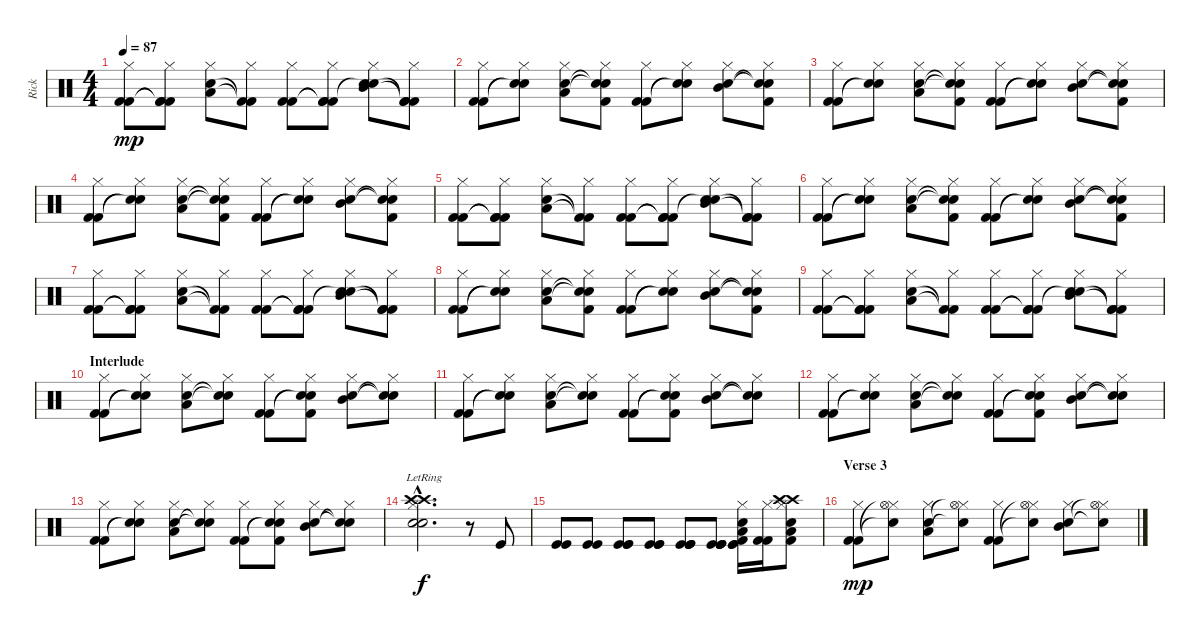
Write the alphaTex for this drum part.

\track ("Rick" "Rick") {instrument percussion}
\staff {score}
\articulation defaults
\ts (4 4)
\tempo 87
\clef neutral
\ks c
("Hi-Hat (closed)" "Kick (hit) 2" "Kick (hit) 2").8{dy mp} ("Hi-Hat (closed)" "Kick (hit) 2"{t} "Kick (hit) 2"{t} "Kick (hit) 2").8 ("Hi-Hat (closed)" "Electric Snare (hit)" "Low Tom (hit)").8 ("Hi-Hat (closed)" "Kick (hit) 2"{t} "Kick (hit) 2"{t}).8 ("Hi-Hat (closed)" "Kick (hit) 2" "Kick (hit) 2").8 ("Hi-Hat (closed)" "Kick (hit) 2"{t} "Kick (hit) 2"{t} "Kick (hit) 2").8 ("Hi-Hat (closed)" "Electric Snare (hit)" "Mid Tom (hit)" "Electric Snare (hit)"{t}).8 ("Hi-Hat (closed)" "Kick (hit) 2"{t} "Kick (hit) 2"{t} "Kick (hit) 2").8 |
("Hi-Hat (closed)" "Kick (hit) 2" "Kick (hit) 2").8 ("Hi-Hat (closed)" "Snare (hit)"{t} "Snare (hit)"{t}).8 ("Hi-Hat (closed)" "Electric Snare (hit)" "Low Tom (hit)").8 ("Hi-Hat (closed)" "Snare (hit)"{t} "Snare (hit)"{t} "Kick (hit) 2").8 ("Hi-Hat (closed)" "Kick (hit) 2" "Kick (hit) 2").8 ("Hi-Hat (closed)" "Snare (hit)"{t} "Snare (hit)"{t}).8 ("Hi-Hat (closed)" "Electric Snare (hit)" "Mid Tom (hit)").8 ("Hi-Hat (closed)" "Snare (hit)"{t} "Snare (hit)"{t} "Kick (hit) 2").8 |
("Hi-Hat (closed)" "Kick (hit) 2" "Kick (hit) 2").8 ("Hi-Hat (closed)" "Snare (hit)"{t} "Snare (hit)"{t}).8 ("Hi-Hat (closed)" "Electric Snare (hit)" "Low Tom (hit)").8 ("Hi-Hat (closed)" "Snare (hit)"{t} "Snare (hit)"{t} "Kick (hit) 2").8 ("Hi-Hat (closed)" "Kick (hit) 2" "Kick (hit) 2").8 ("Hi-Hat (closed)" "Snare (hit)"{t} "Snare (hit)"{t}).8 ("Hi-Hat (closed)" "Electric Snare (hit)" "Mid Tom (hit)").8 ("Hi-Hat (closed)" "Snare (hit)"{t} "Snare (hit)"{t} "Kick (hit) 2").8 |
("Hi-Hat (closed)" "Kick (hit) 2" "Kick (hit) 2").8 ("Hi-Hat (closed)" "Snare (hit)"{t} "Snare (hit)"{t}).8 ("Hi-Hat (closed)" "Electric Snare (hit)" "Low Tom (hit)").8 ("Hi-Hat (closed)" "Snare (hit)"{t} "Snare (hit)"{t} "Kick (hit) 2").8 ("Hi-Hat (closed)" "Kick (hit) 2" "Kick (hit) 2").8 ("Hi-Hat (closed)" "Snare (hit)"{t} "Snare (hit)"{t}).8 ("Hi-Hat (closed)" "Electric Snare (hit)" "Mid Tom (hit)").8 ("Hi-Hat (closed)" "Snare (hit)"{t} "Snare (hit)"{t} "Kick (hit) 2").8 |
("Hi-Hat (closed)" "Kick (hit) 2" "Kick (hit) 2").8 ("Hi-Hat (closed)" "Kick (hit) 2"{t} "Kick (hit) 2"{t} "Kick (hit) 2").8 ("Hi-Hat (closed)" "Electric Snare (hit)" "Low Tom (hit)").8 ("Hi-Hat (closed)" "Kick (hit) 2"{t} "Kick (hit) 2"{t}).8 ("Hi-Hat (closed)" "Kick (hit) 2" "Kick (hit) 2").8 ("Hi-Hat (closed)" "Kick (hit) 2"{t} "Kick (hit) 2"{t} "Kick (hit) 2").8 ("Hi-Hat (closed)" "Electric Snare (hit)" "Mid Tom (hit)" "Electric Snare (hit)"{t}).8 ("Hi-Hat (closed)" "Kick (hit) 2"{t} "Kick (hit) 2"{t} "Kick (hit) 2").8 |
("Hi-Hat (closed)" "Kick (hit) 2" "Kick (hit) 2").8 ("Hi-Hat (closed)" "Snare (hit)"{t} "Snare (hit)"{t}).8 ("Hi-Hat (closed)" "Electric Snare (hit)" "Low Tom (hit)").8 ("Hi-Hat (closed)" "Snare (hit)"{t} "Snare (hit)"{t} "Kick (hit) 2").8 ("Hi-Hat (closed)" "Kick (hit) 2" "Kick (hit) 2").8 ("Hi-Hat (closed)" "Snare (hit)"{t} "Snare (hit)"{t}).8 ("Hi-Hat (closed)" "Electric Snare (hit)" "Mid Tom (hit)").8 ("Hi-Hat (closed)" "Snare (hit)"{t} "Snare (hit)"{t} "Kick (hit) 2").8 |
("Hi-Hat (closed)" "Kick (hit) 2" "Kick (hit) 2").8 ("Hi-Hat (closed)" "Kick (hit) 2"{t} "Kick (hit) 2"{t} "Kick (hit) 2").8 ("Hi-Hat (closed)" "Electric Snare (hit)" "Low Tom (hit)").8 ("Hi-Hat (closed)" "Kick (hit) 2"{t} "Kick (hit) 2"{t}).8 ("Hi-Hat (closed)" "Kick (hit) 2" "Kick (hit) 2").8 ("Hi-Hat (closed)" "Kick (hit) 2"{t} "Kick (hit) 2"{t} "Kick (hit) 2").8 ("Hi-Hat (closed)" "Electric Snare (hit)" "Mid Tom (hit)" "Electric Snare (hit)"{t}).8 ("Hi-Hat (closed)" "Kick (hit) 2"{t} "Kick (hit) 2"{t} "Kick (hit) 2").8 |
("Hi-Hat (closed)" "Kick (hit) 2" "Kick (hit) 2").8 ("Hi-Hat (closed)" "Snare (hit)"{t} "Snare (hit)"{t}).8 ("Hi-Hat (closed)" "Electric Snare (hit)" "Low Tom (hit)").8 ("Hi-Hat (closed)" "Snare (hit)"{t} "Snare (hit)"{t} "Kick (hit) 2").8 ("Hi-Hat (closed)" "Kick (hit) 2" "Kick (hit) 2").8 ("Hi-Hat (closed)" "Snare (hit)"{t} "Snare (hit)"{t}).8 ("Hi-Hat (closed)" "Electric Snare (hit)" "Mid Tom (hit)").8 ("Hi-Hat (closed)" "Snare (hit)"{t} "Snare (hit)"{t} "Kick (hit) 2").8 |
("Hi-Hat (closed)" "Kick (hit) 2" "Kick (hit) 2").8 ("Hi-Hat (closed)" "Kick (hit) 2"{t} "Kick (hit) 2"{t} "Kick (hit) 2").8 ("Hi-Hat (closed)" "Electric Snare (hit)" "Low Tom (hit)").8 ("Hi-Hat (closed)" "Kick (hit) 2"{t} "Kick (hit) 2"{t}).8 ("Hi-Hat (closed)" "Kick (hit) 2" "Kick (hit) 2").8 ("Hi-Hat (closed)" "Kick (hit) 2"{t} "Kick (hit) 2"{t} "Kick (hit) 2").8 ("Hi-Hat (closed)" "Electric Snare (hit)" "Mid Tom (hit)" "Electric Snare (hit)"{t}).8 ("Hi-Hat (closed)" "Kick (hit) 2"{t} "Kick (hit) 2"{t} "Kick (hit) 2").8 |
\section ("" "Interlude")
("Hi-Hat (closed)" "Kick (hit) 2" "Kick (hit) 2").8 ("Hi-Hat (closed)" "Snare (hit)"{t} "Snare (hit)"{t}).8 ("Hi-Hat (closed)" "Electric Snare (hit)" "Low Tom (hit)").8 ("Hi-Hat (closed)" "Snare (hit)"{t} "Snare (hit)"{t}).8 ("Hi-Hat (closed)" "Kick (hit) 2" "Kick (hit) 2").8 ("Hi-Hat (closed)" "Snare (hit)"{t} "Snare (hit)"{t} "Kick (hit) 2").8 ("Hi-Hat (closed)" "Electric Snare (hit)" "Mid Tom (hit)").8 ("Hi-Hat (closed)" "Snare (hit)"{t} "Snare (hit)"{t}).8 |
("Hi-Hat (closed)" "Kick (hit) 2" "Kick (hit) 2").8 ("Hi-Hat (closed)" "Snare (hit)"{t} "Snare (hit)"{t}).8 ("Hi-Hat (closed)" "Electric Snare (hit)" "Low Tom (hit)").8 ("Hi-Hat (closed)" "Snare (hit)"{t} "Snare (hit)"{t}).8 ("Hi-Hat (closed)" "Kick (hit) 2" "Kick (hit) 2").8 ("Hi-Hat (closed)" "Snare (hit)"{t} "Snare (hit)"{t} "Kick (hit) 2").8 ("Hi-Hat (closed)" "Electric Snare (hit)" "Mid Tom (hit)").8 ("Hi-Hat (closed)" "Snare (hit)"{t} "Snare (hit)"{t}).8 |
("Hi-Hat (closed)" "Kick (hit) 2" "Kick (hit) 2").8 ("Hi-Hat (closed)" "Snare (hit)"{t} "Snare (hit)"{t}).8 ("Hi-Hat (closed)" "Electric Snare (hit)" "Low Tom (hit)").8 ("Hi-Hat (closed)" "Snare (hit)"{t} "Snare (hit)"{t}).8 ("Hi-Hat (closed)" "Kick (hit) 2" "Kick (hit) 2").8 ("Hi-Hat (closed)" "Snare (hit)"{t} "Snare (hit)"{t} "Kick (hit) 2").8 ("Hi-Hat (closed)" "Electric Snare (hit)" "Mid Tom (hit)").8 ("Hi-Hat (closed)" "Snare (hit)"{t} "Snare (hit)"{t}).8 |
("Hi-Hat (closed)" "Kick (hit) 2" "Kick (hit) 2").8 ("Hi-Hat (closed)" "Snare (hit)"{t} "Snare (hit)"{t}).8 ("Hi-Hat (closed)" "Electric Snare (hit)" "Low Tom (hit)").8 ("Hi-Hat (closed)" "Snare (hit)"{t} "Snare (hit)"{t}).8 ("Hi-Hat (closed)" "Kick (hit) 2" "Kick (hit) 2").8 ("Hi-Hat (closed)" "Snare (hit)"{t} "Snare (hit)"{t} "Kick (hit) 2").8 ("Hi-Hat (closed)" "Electric Snare (hit)" "Mid Tom (hit)").8 ("Hi-Hat (closed)" "Snare (hit)"{t} "Snare (hit)"{t}).8 |
("Hi-Hat (closed)"{hac lr} "Electric Snare (hit)"{hac lr} "Snare (hit) 2"{hac lr} "Crash high (hit)"{hac lr} "Crash high (hit)"{hac}).2{d dy f} r.8 "Kick (hit)".8 |
("Kick (hit)" "Kick (hit)").8 ("Kick (hit)" "Kick (hit)").8 ("Kick (hit)" "Kick (hit)" "Kick (hit)").8 ("Kick (hit)" "Kick (hit)" "Kick (hit)").8 ("Kick (hit)" "Kick (hit)" "Kick (hit)" "Kick (hit)").8 ("Kick (hit)" "Kick (hit)" "Kick (hit)" "Kick (hit)").8 ("Hi-Hat (closed)" "Low Tom (hit)" "Electric Snare (hit)" "Kick (hit) 2" "Kick (hit)" "Kick (hit)").16 ("Hi-Hat (closed)" "Kick (hit) 2" "Kick (hit) 2").16 ("Hi-Hat (closed)" "Low Tom (hit)" "Electric Snare (hit)" "Crash high (hit)" "Kick (hit) 2" "Crash high (hit)").8 |
\section ("" "Verse 3")
("Hi-Hat (closed)" "Kick (hit) 2" "Kick (hit) 2").8{dy mp} ("Hi-Hat (closed)" "Hi-Hat (open)"{t} "Snare (hit)"{t}).8 ("Hi-Hat (closed)" "Electric Snare (hit)" "Low Tom (hit)").8 ("Hi-Hat (closed)" "Hi-Hat (open)"{t} "Snare (hit)"{t}).8 ("Hi-Hat (closed)" "Kick (hit) 2" "Kick (hit) 2").8 ("Hi-Hat (closed)" "Hi-Hat (open)"{t} "Snare (hit)"{t}).8 ("Hi-Hat (closed)" "Electric Snare (hit)" "Mid Tom (hit)").8 ("Hi-Hat (closed)" "Hi-Hat (open)"{t} "Snare (hit)"{t}).8
